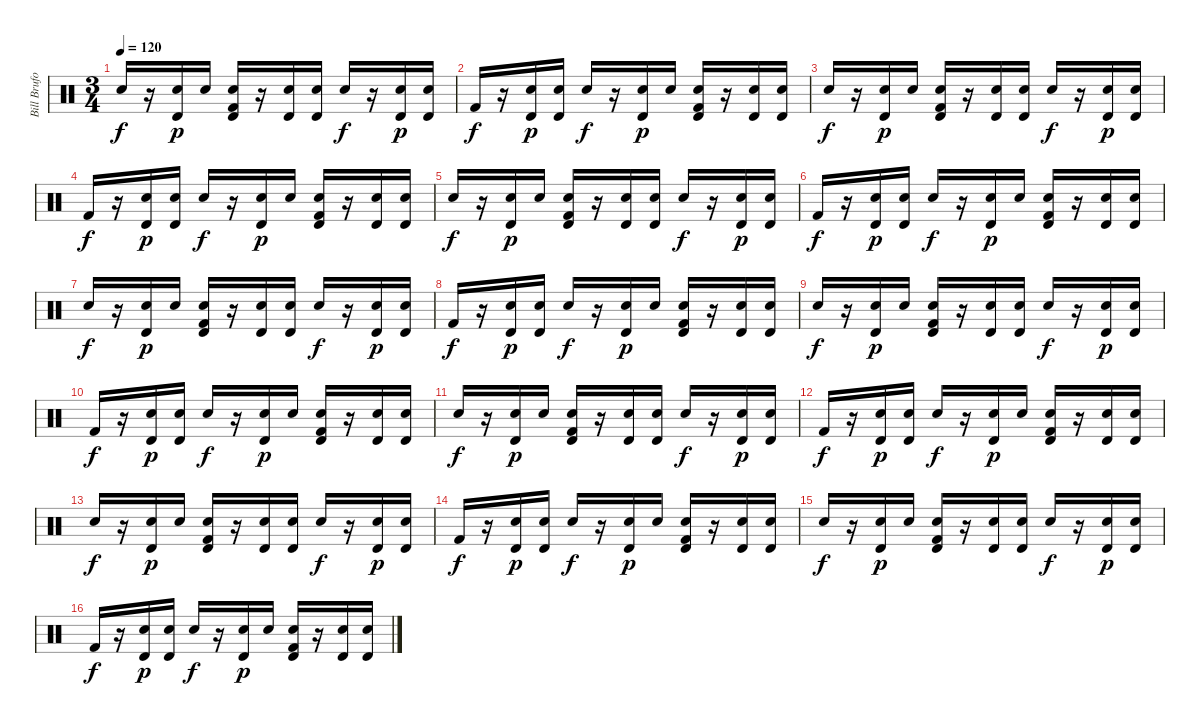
\track ("Bill Bruford (Drums)" "Bill Brufo") {instrument percussion}
\staff {score}
\articulation defaults
\ts (3 4)
\tempo 120
\clef neutral
\ks c "Electric Snare (hit)".16{dy f}
r.16 ("Electric Snare (hit)" "Timbale high (hit)").16{dy p} "Electric Snare (hit)".16 ("Electric Snare (hit)" "Timbale high (hit)" "Kick (hit) 2").16 r.16 ("Electric Snare (hit)" "Timbale high (hit)").16 ("Electric Snare (hit)" "Timbale high (hit)").16 "Electric Snare (hit)".16{dy f} r.16 ("Electric Snare (hit)" "Timbale high (hit)").16{dy p} ("Electric Snare (hit)" "Timbale high (hit)").16 |
"Kick (hit) 2".16{dy f} r.16 ("Electric Snare (hit)" "Timbale high (hit)").16{dy p} ("Electric Snare (hit)" "Timbale high (hit)").16 "Electric Snare (hit)".16{dy f} r.16 ("Electric Snare (hit)" "Timbale high (hit)").16{dy p} "Electric Snare (hit)".16 ("Electric Snare (hit)" "Timbale high (hit)" "Kick (hit) 2").16 r.16 ("Electric Snare (hit)" "Timbale high (hit)").16 ("Electric Snare (hit)" "Timbale high (hit)").16 |
"Electric Snare (hit)".16{dy f} r.16 ("Electric Snare (hit)" "Timbale high (hit)").16{dy p} "Electric Snare (hit)".16 ("Electric Snare (hit)" "Timbale high (hit)" "Kick (hit) 2").16 r.16 ("Electric Snare (hit)" "Timbale high (hit)").16 ("Electric Snare (hit)" "Timbale high (hit)").16 "Electric Snare (hit)".16{dy f} r.16 ("Electric Snare (hit)" "Timbale high (hit)").16{dy p} ("Electric Snare (hit)" "Timbale high (hit)").16 |
"Kick (hit) 2".16{dy f} r.16 ("Electric Snare (hit)" "Timbale high (hit)").16{dy p} ("Electric Snare (hit)" "Timbale high (hit)").16 "Electric Snare (hit)".16{dy f} r.16 ("Electric Snare (hit)" "Timbale high (hit)").16{dy p} "Electric Snare (hit)".16 ("Electric Snare (hit)" "Timbale high (hit)" "Kick (hit) 2").16 r.16 ("Electric Snare (hit)" "Timbale high (hit)").16 ("Electric Snare (hit)" "Timbale high (hit)").16 |
"Electric Snare (hit)".16{dy f} r.16 ("Electric Snare (hit)" "Timbale high (hit)").16{dy p} "Electric Snare (hit)".16 ("Electric Snare (hit)" "Timbale high (hit)" "Kick (hit) 2").16 r.16 ("Electric Snare (hit)" "Timbale high (hit)").16 ("Electric Snare (hit)" "Timbale high (hit)").16 "Electric Snare (hit)".16{dy f} r.16 ("Electric Snare (hit)" "Timbale high (hit)").16{dy p} ("Electric Snare (hit)" "Timbale high (hit)").16 |
"Kick (hit) 2".16{dy f} r.16 ("Electric Snare (hit)" "Timbale high (hit)").16{dy p} ("Electric Snare (hit)" "Timbale high (hit)").16 "Electric Snare (hit)".16{dy f} r.16 ("Electric Snare (hit)" "Timbale high (hit)").16{dy p} "Electric Snare (hit)".16 ("Electric Snare (hit)" "Timbale high (hit)" "Kick (hit) 2").16 r.16 ("Electric Snare (hit)" "Timbale high (hit)").16 ("Electric Snare (hit)" "Timbale high (hit)").16 |
"Electric Snare (hit)".16{dy f} r.16 ("Electric Snare (hit)" "Timbale high (hit)").16{dy p} "Electric Snare (hit)".16 ("Electric Snare (hit)" "Timbale high (hit)" "Kick (hit) 2").16 r.16 ("Electric Snare (hit)" "Timbale high (hit)").16 ("Electric Snare (hit)" "Timbale high (hit)").16 "Electric Snare (hit)".16{dy f} r.16 ("Electric Snare (hit)" "Timbale high (hit)").16{dy p} ("Electric Snare (hit)" "Timbale high (hit)").16 |
"Kick (hit) 2".16{dy f} r.16 ("Electric Snare (hit)" "Timbale high (hit)").16{dy p} ("Electric Snare (hit)" "Timbale high (hit)").16 "Electric Snare (hit)".16{dy f} r.16 ("Electric Snare (hit)" "Timbale high (hit)").16{dy p} "Electric Snare (hit)".16 ("Electric Snare (hit)" "Timbale high (hit)" "Kick (hit) 2").16 r.16 ("Electric Snare (hit)" "Timbale high (hit)").16 ("Electric Snare (hit)" "Timbale high (hit)").16 |
"Electric Snare (hit)".16{dy f} r.16 ("Electric Snare (hit)" "Timbale high (hit)").16{dy p} "Electric Snare (hit)".16 ("Electric Snare (hit)" "Timbale high (hit)" "Kick (hit) 2").16 r.16 ("Electric Snare (hit)" "Timbale high (hit)").16 ("Electric Snare (hit)" "Timbale high (hit)").16 "Electric Snare (hit)".16{dy f} r.16 ("Electric Snare (hit)" "Timbale high (hit)").16{dy p} ("Electric Snare (hit)" "Timbale high (hit)").16 |
"Kick (hit) 2".16{dy f} r.16 ("Electric Snare (hit)" "Timbale high (hit)").16{dy p} ("Electric Snare (hit)" "Timbale high (hit)").16 "Electric Snare (hit)".16{dy f} r.16 ("Electric Snare (hit)" "Timbale high (hit)").16{dy p} "Electric Snare (hit)".16 ("Electric Snare (hit)" "Timbale high (hit)" "Kick (hit) 2").16 r.16 ("Electric Snare (hit)" "Timbale high (hit)").16 ("Electric Snare (hit)" "Timbale high (hit)").16 |
"Electric Snare (hit)".16{dy f} r.16 ("Electric Snare (hit)" "Timbale high (hit)").16{dy p} "Electric Snare (hit)".16 ("Electric Snare (hit)" "Timbale high (hit)" "Kick (hit) 2").16 r.16 ("Electric Snare (hit)" "Timbale high (hit)").16 ("Electric Snare (hit)" "Timbale high (hit)").16 "Electric Snare (hit)".16{dy f} r.16 ("Electric Snare (hit)" "Timbale high (hit)").16{dy p} ("Electric Snare (hit)" "Timbale high (hit)").16 |
"Kick (hit) 2".16{dy f} r.16 ("Electric Snare (hit)" "Timbale high (hit)").16{dy p} ("Electric Snare (hit)" "Timbale high (hit)").16 "Electric Snare (hit)".16{dy f} r.16 ("Electric Snare (hit)" "Timbale high (hit)").16{dy p} "Electric Snare (hit)".16 ("Electric Snare (hit)" "Timbale high (hit)" "Kick (hit) 2").16 r.16 ("Electric Snare (hit)" "Timbale high (hit)").16 ("Electric Snare (hit)" "Timbale high (hit)").16 |
"Electric Snare (hit)".16{dy f} r.16 ("Electric Snare (hit)" "Timbale high (hit)").16{dy p} "Electric Snare (hit)".16 ("Electric Snare (hit)" "Timbale high (hit)" "Kick (hit) 2").16 r.16 ("Electric Snare (hit)" "Timbale high (hit)").16 ("Electric Snare (hit)" "Timbale high (hit)").16 "Electric Snare (hit)".16{dy f} r.16 ("Electric Snare (hit)" "Timbale high (hit)").16{dy p} ("Electric Snare (hit)" "Timbale high (hit)").16 |
"Kick (hit) 2".16{dy f} r.16 ("Electric Snare (hit)" "Timbale high (hit)").16{dy p} ("Electric Snare (hit)" "Timbale high (hit)").16 "Electric Snare (hit)".16{dy f} r.16 ("Electric Snare (hit)" "Timbale high (hit)").16{dy p} "Electric Snare (hit)".16 ("Electric Snare (hit)" "Timbale high (hit)" "Kick (hit) 2").16 r.16 ("Electric Snare (hit)" "Timbale high (hit)").16 ("Electric Snare (hit)" "Timbale high (hit)").16 |
"Electric Snare (hit)".16{dy f} r.16 ("Electric Snare (hit)" "Timbale high (hit)").16{dy p} "Electric Snare (hit)".16 ("Electric Snare (hit)" "Timbale high (hit)" "Kick (hit) 2").16 r.16 ("Electric Snare (hit)" "Timbale high (hit)").16 ("Electric Snare (hit)" "Timbale high (hit)").16 "Electric Snare (hit)".16{dy f} r.16 ("Electric Snare (hit)" "Timbale high (hit)").16{dy p} ("Electric Snare (hit)" "Timbale high (hit)").16 |
"Kick (hit) 2".16{dy f} r.16 ("Electric Snare (hit)" "Timbale high (hit)").16{dy p} ("Electric Snare (hit)" "Timbale high (hit)").16 "Electric Snare (hit)".16{dy f} r.16 ("Electric Snare (hit)" "Timbale high (hit)").16{dy p} "Electric Snare (hit)".16 ("Electric Snare (hit)" "Timbale high (hit)" "Kick (hit) 2").16 r.16 ("Electric Snare (hit)" "Timbale high (hit)").16 ("Electric Snare (hit)" "Timbale high (hit)").16
